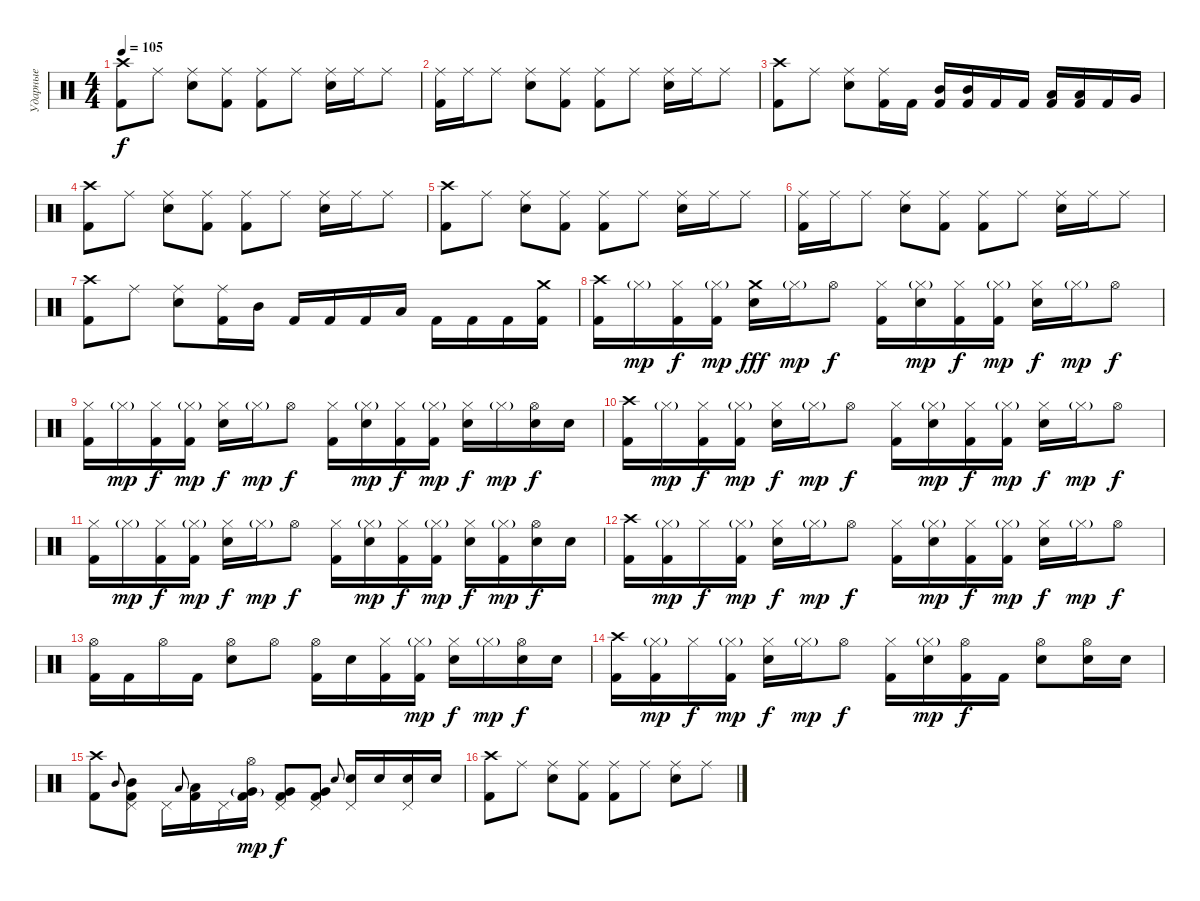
\track ("Ударные" "Ударные") {instrument percussion}
\staff {score}
\articulation defaults
\ts (4 4)
\tempo 105
\clef neutral
\ks c
("Kick (hit) 2" "Crash high (hit)").8{dy f} "Ride (middle)".8 ("Electric Snare (hit)" "Ride (middle)").8 ("Kick (hit) 2" "Ride (middle)").8 ("Kick (hit) 2" "Ride (middle)").8 "Ride (middle)".8 ("Electric Snare (hit)" "Ride (middle)").16 "Ride (middle)".16 "Ride (middle)".8 |
("Kick (hit) 2" "Ride (middle)").16 "Ride (middle)".16 "Ride (middle)".8 ("Electric Snare (hit)" "Ride (middle)").8 ("Kick (hit) 2" "Ride (middle)").8 ("Kick (hit) 2" "Ride (middle)").8 "Ride (middle)".8 ("Electric Snare (hit)" "Ride (middle)").16 "Ride (middle)".16 "Ride (middle)".8 |
("Kick (hit) 2" "Crash high (hit)").8 "Ride (middle)".8 ("Electric Snare (hit)" "Ride (middle)").8 ("Kick (hit) 2" "Ride (middle)").16 "Kick (hit) 2".16 ("Kick (hit) 2" "Mid Tom (hit)").16 ("Kick (hit) 2" "Mid Tom (hit)").16 "Kick (hit) 2".16 "Kick (hit) 2".16 ("Kick (hit) 2" "Low Tom (hit)").16 ("Kick (hit) 2" "Low Tom (hit)").16 "Kick (hit) 2".16 "Very Low Tom (hit)".16 |
("Kick (hit) 2" "Crash high (hit)").8 "Ride (middle)".8 ("Electric Snare (hit)" "Ride (middle)").8 ("Kick (hit) 2" "Ride (middle)").8 ("Kick (hit) 2" "Ride (middle)").8 "Ride (middle)".8 ("Electric Snare (hit)" "Ride (middle)").16 "Ride (middle)".16 "Ride (middle)".8 |
("Kick (hit) 2" "Crash high (hit)").8 "Ride (middle)".8 ("Electric Snare (hit)" "Ride (middle)").8 ("Kick (hit) 2" "Ride (middle)").8 ("Kick (hit) 2" "Ride (middle)").8 "Ride (middle)".8 ("Electric Snare (hit)" "Ride (middle)").16 "Ride (middle)".16 "Ride (middle)".8 |
("Kick (hit) 2" "Ride (middle)").16 "Ride (middle)".16 "Ride (middle)".8 ("Electric Snare (hit)" "Ride (middle)").8 ("Kick (hit) 2" "Ride (middle)").8 ("Kick (hit) 2" "Ride (middle)").8 "Ride (middle)".8 ("Electric Snare (hit)" "Ride (middle)").16 "Ride (middle)".16 "Ride (middle)".8 |
("Kick (hit) 2" "Crash high (hit)").8 "Ride (middle)".8 ("Electric Snare (hit)" "Ride (middle)").8 ("Kick (hit) 2" "Ride (middle)").16 "Mid Tom (hit)".16 "Kick (hit) 2".16 "Kick (hit) 2".16 "Kick (hit) 2".16 "Low Tom (hit)".16 "Kick (hit) 2".16 "Kick (hit) 2".16 "Kick (hit) 2".16 ("Kick (hit) 2" "Crash medium (hit)").16 |
("Kick (hit) 2" "Crash high (hit)").16 "Hi-Hat (closed)"{g}.16{dy mp} ("Kick (hit) 2" "Hi-Hat (closed)").16{dy f} ("Kick (hit) 2" "Hi-Hat (closed)"{g}).16{dy mp} ("Electric Snare (hit)" "Crash medium (hit)").16{dy fff} "Hi-Hat (closed)"{g}.16{dy mp} "Hi-Hat (open)".8{dy f} ("Kick (hit) 2" "Hi-Hat (closed)").16 ("Electric Snare (hit)" "Hi-Hat (closed)"{g}).16{dy mp} ("Kick (hit) 2" "Hi-Hat (closed)").16{dy f} ("Kick (hit) 2" "Hi-Hat (closed)"{g}).16{dy mp} ("Electric Snare (hit)" "Hi-Hat (closed)").16{dy f} "Hi-Hat (closed)"{g}.16{dy mp} "Hi-Hat (open)".8{dy f} |
("Kick (hit) 2" "Hi-Hat (closed)").16 "Hi-Hat (closed)"{g}.16{dy mp} ("Kick (hit) 2" "Hi-Hat (closed)").16{dy f} ("Kick (hit) 2" "Hi-Hat (closed)"{g}).16{dy mp} ("Electric Snare (hit)" "Hi-Hat (closed)").16{dy f} "Hi-Hat (closed)"{g}.16{dy mp} "Hi-Hat (open)".8{dy f} ("Kick (hit) 2" "Hi-Hat (closed)").16 ("Electric Snare (hit)" "Hi-Hat (closed)"{g}).16{dy mp} ("Kick (hit) 2" "Hi-Hat (closed)").16{dy f} ("Kick (hit) 2" "Hi-Hat (closed)"{g}).16{dy mp} ("Electric Snare (hit)" "Hi-Hat (closed)").16{dy f} "Hi-Hat (closed)"{g}.16{dy mp} ("Electric Snare (hit)" "Hi-Hat (open)").16{dy f} "Electric Snare (hit)".16 |
("Kick (hit) 2" "Crash high (hit)").16 "Hi-Hat (closed)"{g}.16{dy mp} ("Kick (hit) 2" "Hi-Hat (closed)").16{dy f} ("Kick (hit) 2" "Hi-Hat (closed)"{g}).16{dy mp} ("Electric Snare (hit)" "Hi-Hat (closed)").16{dy f} "Hi-Hat (closed)"{g}.16{dy mp} "Hi-Hat (open)".8{dy f} ("Kick (hit) 2" "Hi-Hat (closed)").16 ("Electric Snare (hit)" "Hi-Hat (closed)"{g}).16{dy mp} ("Kick (hit) 2" "Hi-Hat (closed)").16{dy f} ("Kick (hit) 2" "Hi-Hat (closed)"{g}).16{dy mp} ("Electric Snare (hit)" "Hi-Hat (closed)").16{dy f} "Hi-Hat (closed)"{g}.16{dy mp} "Hi-Hat (open)".8{dy f} |
("Kick (hit) 2" "Hi-Hat (closed)").16 "Hi-Hat (closed)"{g}.16{dy mp} ("Kick (hit) 2" "Hi-Hat (closed)").16{dy f} ("Kick (hit) 2" "Hi-Hat (closed)"{g}).16{dy mp} ("Electric Snare (hit)" "Hi-Hat (closed)").16{dy f} "Hi-Hat (closed)"{g}.16{dy mp} "Hi-Hat (open)".8{dy f} ("Kick (hit) 2" "Hi-Hat (closed)").16 ("Electric Snare (hit)" "Hi-Hat (closed)"{g}).16{dy mp} ("Kick (hit) 2" "Hi-Hat (closed)").16{dy f} ("Kick (hit) 2" "Hi-Hat (closed)"{g}).16{dy mp} ("Electric Snare (hit)" "Hi-Hat (closed)").16{dy f} ("Kick (hit) 2" "Hi-Hat (closed)"{g}).16{dy mp} ("Electric Snare (hit)" "Hi-Hat (open)").16{dy f} "Electric Snare (hit)".16 |
("Kick (hit) 2" "Crash high (hit)").16 ("Kick (hit) 2" "Hi-Hat (closed)"{g}).16{dy mp} "Hi-Hat (closed)".16{dy f} ("Kick (hit) 2" "Hi-Hat (closed)"{g}).16{dy mp} ("Electric Snare (hit)" "Hi-Hat (closed)").16{dy f} "Hi-Hat (closed)"{g}.16{dy mp} "Hi-Hat (open)".8{dy f} ("Kick (hit) 2" "Hi-Hat (closed)").16 ("Electric Snare (hit)" "Hi-Hat (closed)"{g}).16{dy mp} ("Kick (hit) 2" "Hi-Hat (closed)").16{dy f} ("Kick (hit) 2" "Hi-Hat (closed)"{g}).16{dy mp} ("Electric Snare (hit)" "Hi-Hat (closed)").16{dy f} "Hi-Hat (closed)"{g}.16{dy mp} "Hi-Hat (open)".8{dy f} |
("Kick (hit) 2" "Hi-Hat (open)").16 "Kick (hit) 2".16 "Hi-Hat (open)".16 "Kick (hit) 2".16 ("Electric Snare (hit)" "Hi-Hat (open)").8 "Hi-Hat (open)".8 ("Kick (hit) 2" "Hi-Hat (open)").16 "Electric Snare (hit)".16 ("Kick (hit) 2" "Hi-Hat (closed)").16 ("Kick (hit) 2" "Hi-Hat (closed)"{g}).16{dy mp} ("Electric Snare (hit)" "Hi-Hat (closed)").16{dy f} "Hi-Hat (closed)"{g}.16{dy mp} ("Electric Snare (hit)" "Hi-Hat (open)").16{dy f} "Electric Snare (hit)".16 |
("Kick (hit) 2" "Crash high (hit)").16 ("Kick (hit) 2" "Hi-Hat (closed)"{g}).16{dy mp} "Hi-Hat (closed)".16{dy f} ("Kick (hit) 2" "Hi-Hat (closed)"{g}).16{dy mp} ("Electric Snare (hit)" "Hi-Hat (closed)").16{dy f} "Hi-Hat (closed)"{g}.16{dy mp} "Hi-Hat (open)".8{dy f} ("Kick (hit) 2" "Hi-Hat (closed)").16 ("Electric Snare (hit)" "Hi-Hat (closed)"{g}).16{dy mp} ("Kick (hit) 2" "Hi-Hat (open)").16{dy f} "Kick (hit) 2".16 ("Electric Snare (hit)" "Hi-Hat (open)").8 ("Electric Snare (hit)" "Hi-Hat (open)").16 "Electric Snare (hit)".16 |
("Kick (hit) 2" "Crash high (hit)").8 "Mid Tom (hit)".8{gr onbeat} ("Pedal Hi-Hat (hit)" "Mid Tom (hit)" "Kick (hit) 2").8 "Pedal Hi-Hat (hit)".16 "Low Tom (hit)".8{gr onbeat} ("Low Tom (hit)" "Kick (hit) 2").16 "Pedal Hi-Hat (hit)".16 ("Hi-Hat (open)" "Very Low Tom (hit)"{g} "Kick (hit) 2").16{dy mp} ("Pedal Hi-Hat (hit)" "Very Low Tom (hit)" "Kick (hit) 2").8{dy f} ("Pedal Hi-Hat (hit)" "Very Low Tom (hit)" "Kick (hit) 2").8 "Electric Snare (hit)".8{gr onbeat} ("Pedal Hi-Hat (hit)" "Electric Snare (hit)").16 "Electric Snare (hit)".16 ("Pedal Hi-Hat (hit)" "Electric Snare (hit)").16 "Electric Snare (hit)".16 |
("Kick (hit) 2" "Crash high (hit)").8 "Ride (middle)".8 ("Electric Snare (hit)" "Ride (middle)").8 ("Kick (hit) 2" "Ride (middle)").8 ("Kick (hit) 2" "Ride (middle)").8 "Ride (middle)".8 ("Electric Snare (hit)" "Ride (middle)").8 "Ride (middle)".8
